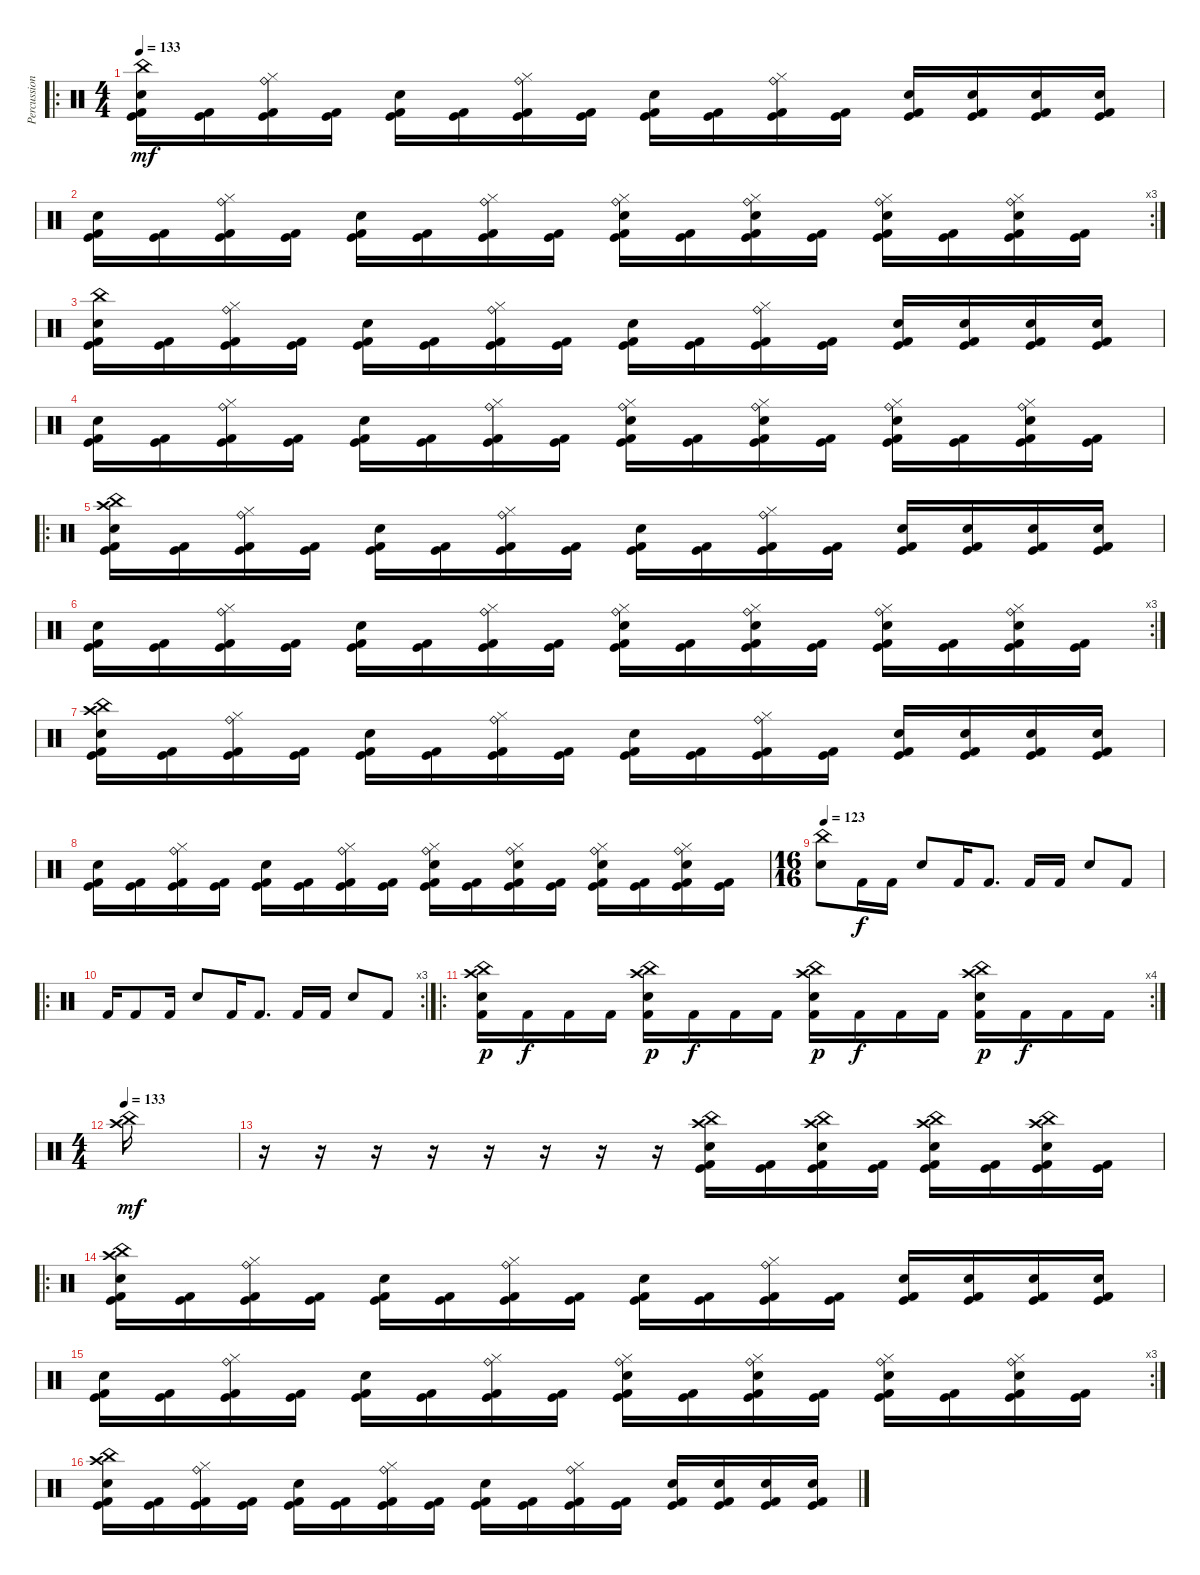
\track ("Percussion" "Percussion") {instrument percussion}
\staff {score}
\articulation defaults
\ro
\ts (4 4)
\tempo 133
\clef neutral
\ks c
("Kick (hit)" "China (hit)" "Snare (hit) 2" "Kick (hit) 2").16{dy mf} ("Kick (hit)" "Kick (hit) 2").16 ("Kick (hit)" "Ride (bell)" "Hi-Hat (closed)" "Kick (hit) 2").16 ("Kick (hit)" "Kick (hit) 2").16 ("Kick (hit)" "Snare (hit) 2" "Kick (hit) 2").16 ("Kick (hit)" "Kick (hit) 2").16 ("Kick (hit)" "Ride (bell)" "Hi-Hat (closed)" "Kick (hit) 2").16 ("Kick (hit)" "Kick (hit) 2").16 ("Kick (hit)" "Snare (hit) 2" "Kick (hit) 2").16 ("Kick (hit)" "Kick (hit) 2").16 ("Kick (hit)" "Ride (bell)" "Hi-Hat (closed)" "Kick (hit) 2").16 ("Kick (hit)" "Kick (hit) 2").16 ("Kick (hit)" "Snare (hit) 2" "Kick (hit) 2").16 ("Kick (hit)" "Snare (hit) 2" "Kick (hit) 2").16 ("Kick (hit)" "Snare (hit) 2" "Kick (hit) 2").16 ("Kick (hit)" "Snare (hit) 2" "Kick (hit) 2").16 |
\rc 3
("Kick (hit)" "Snare (hit) 2" "Kick (hit) 2").16 ("Kick (hit)" "Kick (hit) 2").16 ("Kick (hit)" "Ride (bell)" "Hi-Hat (closed)" "Kick (hit) 2").16 ("Kick (hit)" "Kick (hit) 2").16 ("Kick (hit)" "Snare (hit) 2" "Kick (hit) 2").16 ("Kick (hit)" "Kick (hit) 2").16 ("Kick (hit)" "Ride (bell)" "Hi-Hat (closed)" "Kick (hit) 2").16 ("Kick (hit)" "Kick (hit) 2").16 ("Kick (hit)" "Hi-Hat (closed)" "Ride (bell)" "Snare (hit) 2" "Kick (hit) 2").16 ("Kick (hit)" "Kick (hit) 2").16 ("Kick (hit)" "Hi-Hat (closed)" "Ride (bell)" "Snare (hit) 2" "Kick (hit) 2").16 ("Kick (hit)" "Kick (hit) 2").16 ("Kick (hit)" "Hi-Hat (closed)" "Ride (bell)" "Snare (hit) 2" "Kick (hit) 2").16 ("Kick (hit)" "Kick (hit) 2").16 ("Kick (hit)" "Hi-Hat (closed)" "Ride (bell)" "Snare (hit) 2" "Kick (hit) 2").16 ("Kick (hit)" "Kick (hit) 2").16 |
("Kick (hit)" "China (hit)" "Snare (hit) 2" "Kick (hit) 2").16 ("Kick (hit)" "Kick (hit) 2").16 ("Kick (hit)" "Ride (bell)" "Hi-Hat (closed)" "Kick (hit) 2").16 ("Kick (hit)" "Kick (hit) 2").16 ("Kick (hit)" "Snare (hit) 2" "Kick (hit) 2").16 ("Kick (hit)" "Kick (hit) 2").16 ("Kick (hit)" "Ride (bell)" "Hi-Hat (closed)" "Kick (hit) 2").16 ("Kick (hit)" "Kick (hit) 2").16 ("Kick (hit)" "Snare (hit) 2" "Kick (hit) 2").16 ("Kick (hit)" "Kick (hit) 2").16 ("Kick (hit)" "Ride (bell)" "Hi-Hat (closed)" "Kick (hit) 2").16 ("Kick (hit)" "Kick (hit) 2").16 ("Kick (hit)" "Snare (hit) 2" "Kick (hit) 2").16 ("Kick (hit)" "Snare (hit) 2" "Kick (hit) 2").16 ("Kick (hit)" "Snare (hit) 2" "Kick (hit) 2").16 ("Kick (hit)" "Snare (hit) 2" "Kick (hit) 2").16 |
("Kick (hit)" "Snare (hit) 2" "Kick (hit) 2").16 ("Kick (hit)" "Kick (hit) 2").16 ("Kick (hit)" "Ride (bell)" "Hi-Hat (closed)" "Kick (hit) 2").16 ("Kick (hit)" "Kick (hit) 2").16 ("Kick (hit)" "Snare (hit) 2" "Kick (hit) 2").16 ("Kick (hit)" "Kick (hit) 2").16 ("Kick (hit)" "Ride (bell)" "Hi-Hat (closed)" "Kick (hit) 2").16 ("Kick (hit)" "Kick (hit) 2").16 ("Kick (hit)" "Hi-Hat (closed)" "Ride (bell)" "Snare (hit) 2" "Kick (hit) 2").16 ("Kick (hit)" "Kick (hit) 2").16 ("Kick (hit)" "Hi-Hat (closed)" "Ride (bell)" "Snare (hit) 2" "Kick (hit) 2").16 ("Kick (hit)" "Kick (hit) 2").16 ("Kick (hit)" "Hi-Hat (closed)" "Ride (bell)" "Snare (hit) 2" "Kick (hit) 2").16 ("Kick (hit)" "Kick (hit) 2").16 ("Kick (hit)" "Hi-Hat (closed)" "Ride (bell)" "Snare (hit) 2" "Kick (hit) 2").16 ("Kick (hit)" "Kick (hit) 2").16 |
\ro
("Kick (hit)" "China (hit)" "Crash high (hit)" "Snare (hit) 2" "Kick (hit) 2").16 ("Kick (hit)" "Kick (hit) 2").16 ("Kick (hit)" "Ride (bell)" "Hi-Hat (closed)" "Kick (hit) 2").16 ("Kick (hit)" "Kick (hit) 2").16 ("Kick (hit)" "Snare (hit) 2" "Kick (hit) 2").16 ("Kick (hit)" "Kick (hit) 2").16 ("Kick (hit)" "Ride (bell)" "Hi-Hat (closed)" "Kick (hit) 2").16 ("Kick (hit)" "Kick (hit) 2").16 ("Kick (hit)" "Snare (hit) 2" "Kick (hit) 2").16 ("Kick (hit)" "Kick (hit) 2").16 ("Kick (hit)" "Ride (bell)" "Hi-Hat (closed)" "Kick (hit) 2").16 ("Kick (hit)" "Kick (hit) 2").16 ("Kick (hit)" "Snare (hit) 2" "Kick (hit) 2").16 ("Kick (hit)" "Snare (hit) 2" "Kick (hit) 2").16 ("Kick (hit)" "Snare (hit) 2" "Kick (hit) 2").16 ("Kick (hit)" "Snare (hit) 2" "Kick (hit) 2").16 |
\rc 3
("Kick (hit)" "Snare (hit) 2" "Kick (hit) 2").16 ("Kick (hit)" "Kick (hit) 2").16 ("Kick (hit)" "Ride (bell)" "Hi-Hat (closed)" "Kick (hit) 2").16 ("Kick (hit)" "Kick (hit) 2").16 ("Kick (hit)" "Snare (hit) 2" "Kick (hit) 2").16 ("Kick (hit)" "Kick (hit) 2").16 ("Kick (hit)" "Ride (bell)" "Hi-Hat (closed)" "Kick (hit) 2").16 ("Kick (hit)" "Kick (hit) 2").16 ("Kick (hit)" "Hi-Hat (closed)" "Ride (bell)" "Snare (hit) 2" "Kick (hit) 2").16 ("Kick (hit)" "Kick (hit) 2").16 ("Kick (hit)" "Hi-Hat (closed)" "Ride (bell)" "Snare (hit) 2" "Kick (hit) 2").16 ("Kick (hit)" "Kick (hit) 2").16 ("Kick (hit)" "Hi-Hat (closed)" "Ride (bell)" "Snare (hit) 2" "Kick (hit) 2").16 ("Kick (hit)" "Kick (hit) 2").16 ("Kick (hit)" "Hi-Hat (closed)" "Ride (bell)" "Snare (hit) 2" "Kick (hit) 2").16 ("Kick (hit)" "Kick (hit) 2").16 |
("Kick (hit)" "China (hit)" "Crash high (hit)" "Snare (hit) 2" "Kick (hit) 2").16 ("Kick (hit)" "Kick (hit) 2").16 ("Kick (hit)" "Ride (bell)" "Hi-Hat (closed)" "Kick (hit) 2").16 ("Kick (hit)" "Kick (hit) 2").16 ("Kick (hit)" "Snare (hit) 2" "Kick (hit) 2").16 ("Kick (hit)" "Kick (hit) 2").16 ("Kick (hit)" "Ride (bell)" "Hi-Hat (closed)" "Kick (hit) 2").16 ("Kick (hit)" "Kick (hit) 2").16 ("Kick (hit)" "Snare (hit) 2" "Kick (hit) 2").16 ("Kick (hit)" "Kick (hit) 2").16 ("Kick (hit)" "Ride (bell)" "Hi-Hat (closed)" "Kick (hit) 2").16 ("Kick (hit)" "Kick (hit) 2").16 ("Kick (hit)" "Snare (hit) 2" "Kick (hit) 2").16 ("Kick (hit)" "Snare (hit) 2" "Kick (hit) 2").16 ("Kick (hit)" "Snare (hit) 2" "Kick (hit) 2").16 ("Kick (hit)" "Snare (hit) 2" "Kick (hit) 2").16 |
("Kick (hit)" "Snare (hit) 2" "Kick (hit) 2").16 ("Kick (hit)" "Kick (hit) 2").16 ("Kick (hit)" "Ride (bell)" "Hi-Hat (closed)" "Kick (hit) 2").16 ("Kick (hit)" "Kick (hit) 2").16 ("Kick (hit)" "Snare (hit) 2" "Kick (hit) 2").16 ("Kick (hit)" "Kick (hit) 2").16 ("Kick (hit)" "Ride (bell)" "Hi-Hat (closed)" "Kick (hit) 2").16 ("Kick (hit)" "Kick (hit) 2").16 ("Kick (hit)" "Hi-Hat (closed)" "Ride (bell)" "Snare (hit) 2" "Kick (hit) 2").16 ("Kick (hit)" "Kick (hit) 2").16 ("Kick (hit)" "Hi-Hat (closed)" "Ride (bell)" "Snare (hit) 2" "Kick (hit) 2").16 ("Kick (hit)" "Kick (hit) 2").16 ("Kick (hit)" "Hi-Hat (closed)" "Ride (bell)" "Snare (hit) 2" "Kick (hit) 2").16 ("Kick (hit)" "Kick (hit) 2").16 ("Kick (hit)" "Hi-Hat (closed)" "Ride (bell)" "Snare (hit) 2" "Kick (hit) 2").16 ("Kick (hit)" "Kick (hit) 2").16 |
\ts (16 16)
\tempo 123
("China (hit)" "Snare (hit) 2").8 "Kick (hit) 2".16{dy f} "Kick (hit) 2".16 "Snare (hit) 2".8 "Kick (hit) 2".16 "Kick (hit) 2".8{d} "Kick (hit) 2".16 "Kick (hit) 2".16 "Snare (hit) 2".8 "Kick (hit) 2".8 |
\ro
\rc 3 "Kick (hit) 2".16 "Kick (hit) 2".8 "Kick (hit) 2".16 "Snare (hit) 2".8 "Kick (hit) 2".16 "Kick (hit) 2".8{d} "Kick (hit) 2".16 "Kick (hit) 2".16 "Snare (hit) 2".8 "Kick (hit) 2".8
|
\ro
\rc 4
("Crash high (hit)" "China (hit)" "Snare (hit) 2" "Kick (hit) 2").16{dy p} "Kick (hit) 2".16{dy f} "Kick (hit) 2".16 "Kick (hit) 2".16 ("Crash high (hit)" "China (hit)" "Snare (hit) 2" "Kick (hit) 2").16{dy p} "Kick (hit) 2".16{dy f} "Kick (hit) 2".16 "Kick (hit) 2".16 ("Crash high (hit)" "China (hit)" "Snare (hit) 2" "Kick (hit) 2").16{dy p} "Kick (hit) 2".16{dy f} "Kick (hit) 2".16 "Kick (hit) 2".16 ("Crash high (hit)" "China (hit)" "Snare (hit) 2" "Kick (hit) 2").16{dy p} "Kick (hit) 2".16{dy f} "Kick (hit) 2".16 "Kick (hit) 2".16 |
\ts (4 4)
\tempo 133
("Crash high (hit)" "China (hit)").16{dy mf} |
r.16 r.16 r.16 r.16 r.16 r.16 r.16 r.16 ("Kick (hit)" "Crash high (hit)" "China (hit)" "Snare (hit) 2" "Kick (hit) 2").16 ("Kick (hit)" "Kick (hit) 2").16 ("Kick (hit)" "Crash high (hit)" "China (hit)" "Snare (hit) 2" "Kick (hit) 2").16 ("Kick (hit)" "Kick (hit) 2").16 ("Kick (hit)" "Crash high (hit)" "China (hit)" "Snare (hit) 2" "Kick (hit) 2").16 ("Kick (hit)" "Kick (hit) 2").16 ("Kick (hit)" "Crash high (hit)" "China (hit)" "Snare (hit) 2" "Kick (hit) 2").16 ("Kick (hit)" "Kick (hit) 2").16 |
\ro
("Kick (hit)" "China (hit)" "Crash high (hit)" "Snare (hit) 2" "Kick (hit) 2").16 ("Kick (hit)" "Kick (hit) 2").16 ("Kick (hit)" "Ride (bell)" "Hi-Hat (closed)" "Kick (hit) 2").16 ("Kick (hit)" "Kick (hit) 2").16 ("Kick (hit)" "Snare (hit) 2" "Kick (hit) 2").16 ("Kick (hit)" "Kick (hit) 2").16 ("Kick (hit)" "Ride (bell)" "Hi-Hat (closed)" "Kick (hit) 2").16 ("Kick (hit)" "Kick (hit) 2").16 ("Kick (hit)" "Snare (hit) 2" "Kick (hit) 2").16 ("Kick (hit)" "Kick (hit) 2").16 ("Kick (hit)" "Ride (bell)" "Hi-Hat (closed)" "Kick (hit) 2").16 ("Kick (hit)" "Kick (hit) 2").16 ("Kick (hit)" "Snare (hit) 2" "Kick (hit) 2").16 ("Kick (hit)" "Snare (hit) 2" "Kick (hit) 2").16 ("Kick (hit)" "Snare (hit) 2" "Kick (hit) 2").16 ("Kick (hit)" "Snare (hit) 2" "Kick (hit) 2").16 |
\rc 3
("Kick (hit)" "Snare (hit) 2" "Kick (hit) 2").16 ("Kick (hit)" "Kick (hit) 2").16 ("Kick (hit)" "Ride (bell)" "Hi-Hat (closed)" "Kick (hit) 2").16 ("Kick (hit)" "Kick (hit) 2").16 ("Kick (hit)" "Snare (hit) 2" "Kick (hit) 2").16 ("Kick (hit)" "Kick (hit) 2").16 ("Kick (hit)" "Ride (bell)" "Hi-Hat (closed)" "Kick (hit) 2").16 ("Kick (hit)" "Kick (hit) 2").16 ("Kick (hit)" "Hi-Hat (closed)" "Ride (bell)" "Snare (hit) 2" "Kick (hit) 2").16 ("Kick (hit)" "Kick (hit) 2").16 ("Kick (hit)" "Hi-Hat (closed)" "Ride (bell)" "Snare (hit) 2" "Kick (hit) 2").16 ("Kick (hit)" "Kick (hit) 2").16 ("Kick (hit)" "Hi-Hat (closed)" "Ride (bell)" "Snare (hit) 2" "Kick (hit) 2").16 ("Kick (hit)" "Kick (hit) 2").16 ("Kick (hit)" "Hi-Hat (closed)" "Ride (bell)" "Snare (hit) 2" "Kick (hit) 2").16 ("Kick (hit)" "Kick (hit) 2").16 |
("Kick (hit)" "China (hit)" "Crash high (hit)" "Snare (hit) 2" "Kick (hit) 2").16 ("Kick (hit)" "Kick (hit) 2").16 ("Kick (hit)" "Ride (bell)" "Hi-Hat (closed)" "Kick (hit) 2").16 ("Kick (hit)" "Kick (hit) 2").16 ("Kick (hit)" "Snare (hit) 2" "Kick (hit) 2").16 ("Kick (hit)" "Kick (hit) 2").16 ("Kick (hit)" "Ride (bell)" "Hi-Hat (closed)" "Kick (hit) 2").16 ("Kick (hit)" "Kick (hit) 2").16 ("Kick (hit)" "Snare (hit) 2" "Kick (hit) 2").16 ("Kick (hit)" "Kick (hit) 2").16 ("Kick (hit)" "Ride (bell)" "Hi-Hat (closed)" "Kick (hit) 2").16 ("Kick (hit)" "Kick (hit) 2").16 ("Kick (hit)" "Snare (hit) 2" "Kick (hit) 2").16 ("Kick (hit)" "Snare (hit) 2" "Kick (hit) 2").16 ("Kick (hit)" "Snare (hit) 2" "Kick (hit) 2").16 ("Kick (hit)" "Snare (hit) 2" "Kick (hit) 2").16
